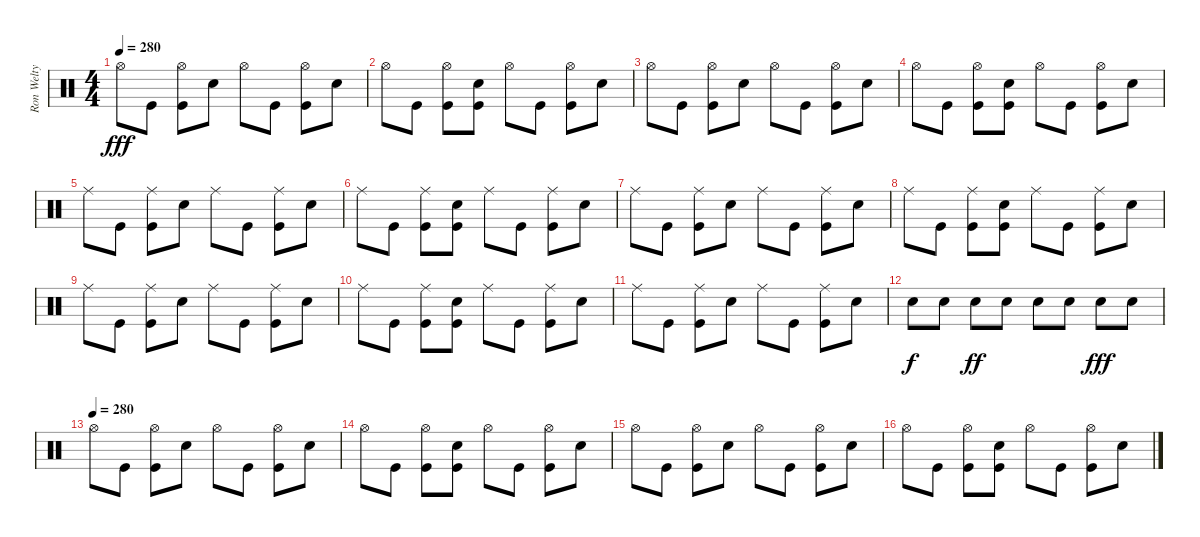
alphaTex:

\track ("Ron Welty" "Ron Welty") {instrument percussion}
\staff {score}
\articulation defaults
\ts (4 4)
\tempo 280
\clef neutral
\ks c "Hi-Hat (open)".8{dy fff} "Kick (hit)".8
("Hi-Hat (open)" "Kick (hit)").8 "Snare (hit) 2".8 "Hi-Hat (open)".8 "Kick (hit)".8 ("Hi-Hat (open)" "Kick (hit)").8 "Snare (hit) 2".8 |
"Hi-Hat (open)".8 "Kick (hit)".8 ("Hi-Hat (open)" "Kick (hit)").8 ("Snare (hit) 2" "Kick (hit)").8 "Hi-Hat (open)".8 "Kick (hit)".8 ("Hi-Hat (open)" "Kick (hit)").8 "Snare (hit) 2".8 |
"Hi-Hat (open)".8 "Kick (hit)".8 ("Hi-Hat (open)" "Kick (hit)").8 "Snare (hit) 2".8 "Hi-Hat (open)".8 "Kick (hit)".8 ("Hi-Hat (open)" "Kick (hit)").8 "Snare (hit) 2".8 |
"Hi-Hat (open)".8 "Kick (hit)".8 ("Hi-Hat (open)" "Kick (hit)").8 ("Snare (hit) 2" "Kick (hit)").8 "Hi-Hat (open)".8 "Kick (hit)".8 ("Hi-Hat (open)" "Kick (hit)").8 "Snare (hit) 2".8 |
"Ride (middle)".8 "Kick (hit)".8 ("Ride (middle)" "Kick (hit)").8 "Snare (hit) 2".8 "Ride (middle)".8 "Kick (hit)".8 ("Ride (middle)" "Kick (hit)").8 "Snare (hit) 2".8 |
"Ride (middle)".8 "Kick (hit)".8 ("Ride (middle)" "Kick (hit)").8 ("Snare (hit) 2" "Kick (hit)").8 "Ride (middle)".8 "Kick (hit)".8 ("Ride (middle)" "Kick (hit)").8 "Snare (hit) 2".8 |
"Ride (middle)".8 "Kick (hit)".8 ("Ride (middle)" "Kick (hit)").8 "Snare (hit) 2".8 "Ride (middle)".8 "Kick (hit)".8 ("Ride (middle)" "Kick (hit)").8 "Snare (hit) 2".8 |
"Ride (middle)".8 "Kick (hit)".8 ("Ride (middle)" "Kick (hit)").8 ("Snare (hit) 2" "Kick (hit)").8 "Ride (middle)".8 "Kick (hit)".8 ("Ride (middle)" "Kick (hit)").8 "Snare (hit) 2".8 |
"Ride (middle)".8 "Kick (hit)".8 ("Ride (middle)" "Kick (hit)").8 "Snare (hit) 2".8 "Ride (middle)".8 "Kick (hit)".8 ("Ride (middle)" "Kick (hit)").8 "Snare (hit) 2".8 |
"Ride (middle)".8 "Kick (hit)".8 ("Ride (middle)" "Kick (hit)").8 ("Snare (hit) 2" "Kick (hit)").8 "Ride (middle)".8 "Kick (hit)".8 ("Ride (middle)" "Kick (hit)").8 "Snare (hit) 2".8 |
"Ride (middle)".8 "Kick (hit)".8 ("Ride (middle)" "Kick (hit)").8 "Snare (hit) 2".8 "Ride (middle)".8 "Kick (hit)".8 ("Ride (middle)" "Kick (hit)").8 "Snare (hit) 2".8 |
"Snare (hit) 2".8{dy f} "Snare (hit) 2".8 "Snare (hit) 2".8{dy ff} "Snare (hit) 2".8 "Snare (hit) 2".8 "Snare (hit) 2".8 "Snare (hit) 2".8{dy fff} "Snare (hit) 2".8 |
\tempo (280)
"Hi-Hat (open)".8 "Kick (hit)".8 ("Hi-Hat (open)" "Kick (hit)").8 "Snare (hit) 2".8 "Hi-Hat (open)".8 "Kick (hit)".8 ("Hi-Hat (open)" "Kick (hit)").8 "Snare (hit) 2".8 |
"Hi-Hat (open)".8 "Kick (hit)".8 ("Hi-Hat (open)" "Kick (hit)").8 ("Snare (hit) 2" "Kick (hit)").8 "Hi-Hat (open)".8 "Kick (hit)".8 ("Hi-Hat (open)" "Kick (hit)").8 "Snare (hit) 2".8 |
"Hi-Hat (open)".8 "Kick (hit)".8 ("Hi-Hat (open)" "Kick (hit)").8 "Snare (hit) 2".8 "Hi-Hat (open)".8 "Kick (hit)".8 ("Hi-Hat (open)" "Kick (hit)").8 "Snare (hit) 2".8 |
"Hi-Hat (open)".8 "Kick (hit)".8 ("Hi-Hat (open)" "Kick (hit)").8 ("Snare (hit) 2" "Kick (hit)").8 "Hi-Hat (open)".8 "Kick (hit)".8 ("Hi-Hat (open)" "Kick (hit)").8 "Snare (hit) 2".8
